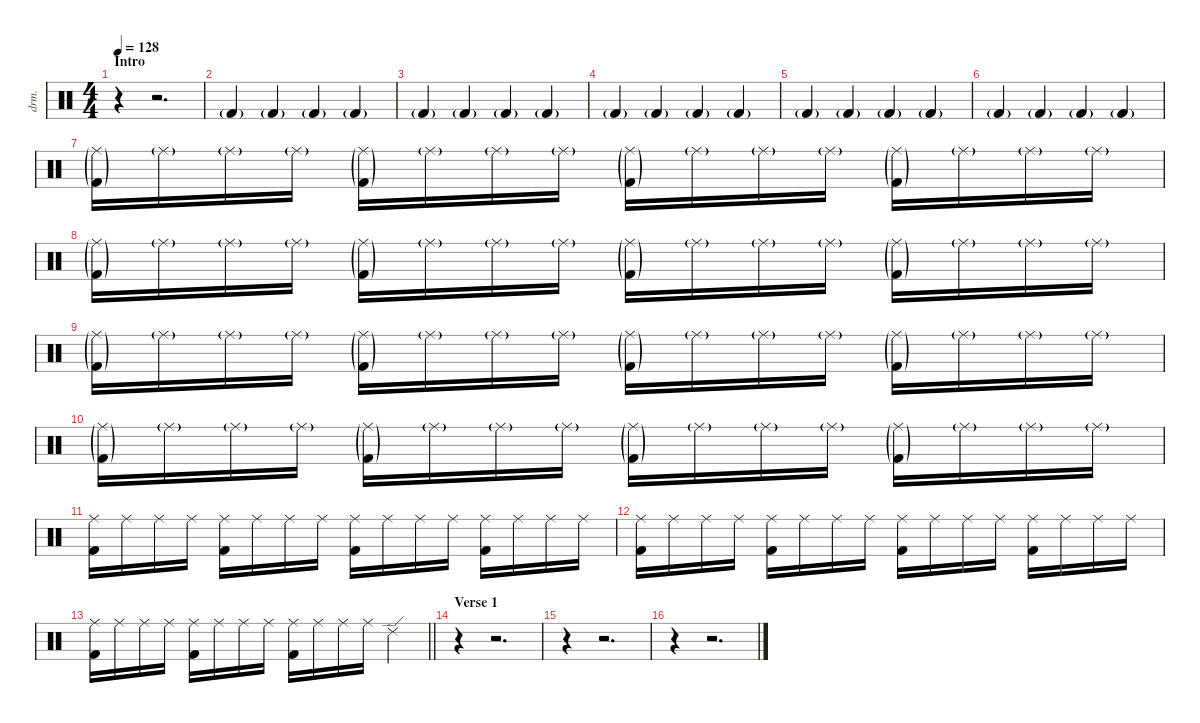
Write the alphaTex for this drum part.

\defaultSystemsLayout 4
\hideDynamics
\bracketExtendMode nobrackets
\otherSystemsTrackNameOrientation horizontal
\track ("Drums" "drm.") {instrument percussion}
\staff {score}
\articulation defaults
\ts (4 4)
\section ("" "Intro")
\tempo 128
\clef neutral
\ks c
r.4{dy f beam Down} r.2{d beam Down} |
"Kick (hit) 2"{g}.4{beam Up} "Kick (hit) 2"{g}.4{beam Up} "Kick (hit) 2"{g}.4{beam Up} "Kick (hit) 2"{g}.4{beam Up} |
"Kick (hit) 2"{g}.4{beam Up} "Kick (hit) 2"{g}.4{beam Up} "Kick (hit) 2"{g}.4{beam Up} "Kick (hit) 2"{g}.4{beam Up} |
"Kick (hit) 2"{g}.4{beam Up} "Kick (hit) 2"{g}.4{beam Up} "Kick (hit) 2"{g}.4{beam Up} "Kick (hit) 2"{g}.4{beam Up} |
"Kick (hit) 2"{g}.4{beam Up} "Kick (hit) 2"{g}.4{beam Up} "Kick (hit) 2"{g}.4{beam Up} "Kick (hit) 2"{g}.4{beam Up} |
"Kick (hit) 2"{g}.4{beam Up} "Kick (hit) 2"{g}.4{beam Up} "Kick (hit) 2"{g}.4{beam Up} "Kick (hit) 2"{g}.4{beam Up} |
("Ride (middle)"{g} "Kick (hit) 2"{g}).16{beam Down} "Ride (middle)"{g}.16{beam Down} "Ride (middle)"{g}.16{beam Down} "Ride (middle)"{g}.16{beam Down} ("Ride (middle)"{g} "Kick (hit) 2"{g}).16{beam Down} "Ride (middle)"{g}.16{beam Down} "Ride (middle)"{g}.16{beam Down} "Ride (middle)"{g}.16{beam Down} ("Ride (middle)"{g} "Kick (hit) 2"{g}).16{beam Down} "Ride (middle)"{g}.16{beam Down} "Ride (middle)"{g}.16{beam Down} "Ride (middle)"{g}.16{beam Down} ("Ride (middle)"{g} "Kick (hit) 2"{g}).16{beam Down} "Ride (middle)"{g}.16{beam Down} "Ride (middle)"{g}.16{beam Down} "Ride (middle)"{g}.16{beam Down} |
("Ride (middle)"{g} "Kick (hit) 2"{g}).16{beam Down} "Ride (middle)"{g}.16{beam Down} "Ride (middle)"{g}.16{beam Down} "Ride (middle)"{g}.16{beam Down} ("Ride (middle)"{g} "Kick (hit) 2"{g}).16{beam Down} "Ride (middle)"{g}.16{beam Down} "Ride (middle)"{g}.16{beam Down} "Ride (middle)"{g}.16{beam Down} ("Ride (middle)"{g} "Kick (hit) 2"{g}).16{beam Down} "Ride (middle)"{g}.16{beam Down} "Ride (middle)"{g}.16{beam Down} "Ride (middle)"{g}.16{beam Down} ("Ride (middle)"{g} "Kick (hit) 2"{g}).16{beam Down} "Ride (middle)"{g}.16{beam Down} "Ride (middle)"{g}.16{beam Down} "Ride (middle)"{g}.16{beam Down} |
("Ride (middle)"{g} "Kick (hit) 2"{g}).16{beam Down} "Ride (middle)"{g}.16{beam Down} "Ride (middle)"{g}.16{beam Down} "Ride (middle)"{g}.16{beam Down} ("Ride (middle)"{g} "Kick (hit) 2"{g}).16{beam Down} "Ride (middle)"{g}.16{beam Down} "Ride (middle)"{g}.16{beam Down} "Ride (middle)"{g}.16{beam Down} ("Ride (middle)"{g} "Kick (hit) 2"{g}).16{beam Down} "Ride (middle)"{g}.16{beam Down} "Ride (middle)"{g}.16{beam Down} "Ride (middle)"{g}.16{beam Down} ("Ride (middle)"{g} "Kick (hit) 2"{g}).16{beam Down} "Ride (middle)"{g}.16{beam Down} "Ride (middle)"{g}.16{beam Down} "Ride (middle)"{g}.16{beam Down} |
("Ride (middle)"{g} "Kick (hit) 2"{g}).16{beam Down} "Ride (middle)"{g}.16{beam Down} "Ride (middle)"{g}.16{beam Down} "Ride (middle)"{g}.16{beam Down} ("Ride (middle)"{g} "Kick (hit) 2"{g}).16{beam Down} "Ride (middle)"{g}.16{beam Down} "Ride (middle)"{g}.16{beam Down} "Ride (middle)"{g}.16{beam Down} ("Ride (middle)"{g} "Kick (hit) 2"{g}).16{beam Down} "Ride (middle)"{g}.16{beam Down} "Ride (middle)"{g}.16{beam Down} "Ride (middle)"{g}.16{beam Down} ("Ride (middle)"{g} "Kick (hit) 2"{g}).16{beam Down} "Ride (middle)"{g}.16{beam Down} "Ride (middle)"{g}.16{beam Down} "Ride (middle)"{g}.16{beam Down} |
("Ride (middle)" "Kick (hit) 2").16{beam Down} "Ride (middle)".16{beam Down} "Ride (middle)".16{beam Down} "Ride (middle)".16{beam Down} ("Ride (middle)" "Kick (hit) 2").16{beam Down} "Ride (middle)".16{beam Down} "Ride (middle)".16{beam Down} "Ride (middle)".16{beam Down} ("Ride (middle)" "Kick (hit) 2").16{beam Down} "Ride (middle)".16{beam Down} "Ride (middle)".16{beam Down} "Ride (middle)".16{beam Down} ("Ride (middle)" "Kick (hit) 2").16{beam Down} "Ride (middle)".16{beam Down} "Ride (middle)".16{beam Down} "Ride (middle)".16{beam Down} |
("Ride (middle)" "Kick (hit) 2").16{beam Down} "Ride (middle)".16{beam Down} "Ride (middle)".16{beam Down} "Ride (middle)".16{beam Down} ("Ride (middle)" "Kick (hit) 2").16{beam Down} "Ride (middle)".16{beam Down} "Ride (middle)".16{beam Down} "Ride (middle)".16{beam Down} ("Ride (middle)" "Kick (hit) 2").16{beam Down} "Ride (middle)".16{beam Down} "Ride (middle)".16{beam Down} "Ride (middle)".16{beam Down} ("Ride (middle)" "Kick (hit) 2").16{beam Down} "Ride (middle)".16{beam Down} "Ride (middle)".16{beam Down} "Ride (middle)".16{beam Down} |
\barLineRight lightlight
("Ride (middle)" "Kick (hit) 2").16{beam Down} "Ride (middle)".16{beam Down} "Ride (middle)".16{beam Down} "Ride (middle)".16{beam Down} ("Ride (middle)" "Kick (hit) 2").16{beam Down} "Ride (middle)".16{beam Down} "Ride (middle)".16{beam Down} "Ride (middle)".16{beam Down} ("Ride (middle)" "Kick (hit) 2").16{beam Down} "Ride (middle)".16{beam Down} "Ride (middle)".16{beam Down} "Ride (middle)".16{beam Down} "Ride (edge) 2".4{beam Down} |
\section ("" "Verse 1")
r.4{beam Down} r.2{d beam Down} |
r.4{beam Down} r.2{d beam Down} |
r.4{beam Down} r.2{d beam Down}
